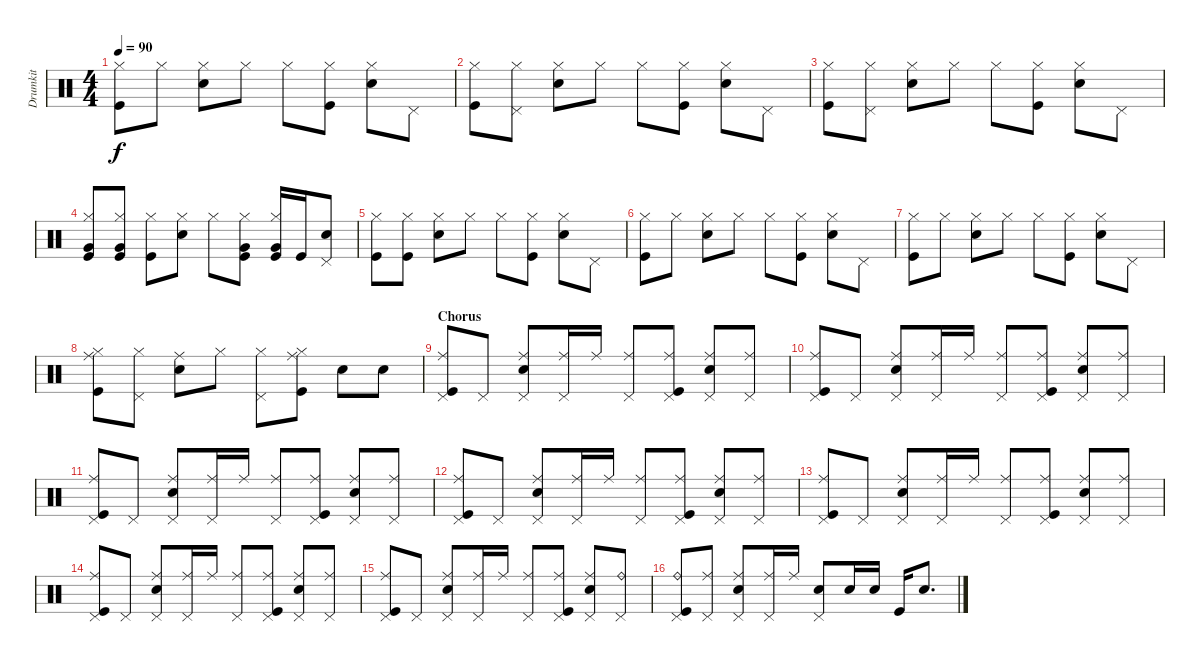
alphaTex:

\track ("Drumkit" "Drumkit") {instrument percussion}
\staff {score}
\articulation defaults
\ts (4 4)
\tempo 90
\clef neutral
\ks c
("Kick (hit)" "Hi-Hat (closed)").8{dy f} "Hi-Hat (closed)".8 ("Snare (hit) 2" "Hi-Hat (closed)").8 "Hi-Hat (closed)".8 "Hi-Hat (closed)".8 ("Kick (hit)" "Hi-Hat (closed)").8 ("Snare (hit) 2" "Hi-Hat (closed)").8 "Pedal Hi-Hat (hit)".8 |
("Kick (hit)" "Hi-Hat (closed)").8 ("Pedal Hi-Hat (hit)" "Hi-Hat (closed)").8 ("Snare (hit) 2" "Hi-Hat (closed)").8 "Hi-Hat (closed)".8 "Hi-Hat (closed)".8 ("Kick (hit)" "Hi-Hat (closed)").8 ("Snare (hit) 2" "Hi-Hat (closed)").8 "Pedal Hi-Hat (hit)".8 |
("Kick (hit)" "Hi-Hat (closed)").8 ("Pedal Hi-Hat (hit)" "Hi-Hat (closed)").8 ("Snare (hit) 2" "Hi-Hat (closed)").8 "Hi-Hat (closed)".8 "Hi-Hat (closed)".8 ("Kick (hit)" "Hi-Hat (closed)").8 ("Snare (hit) 2" "Hi-Hat (closed)").8 "Pedal Hi-Hat (hit)".8 |
("Kick (hit)" "Very Low Tom (hit)" "Hi-Hat (closed)").8 ("Kick (hit)" "Very Low Tom (hit)" "Hi-Hat (closed)").8 ("Kick (hit)" "Hi-Hat (closed)").8 ("Snare (hit) 2" "Hi-Hat (closed)").8 "Hi-Hat (closed)".8 ("Kick (hit)" "Very Low Tom (hit)" "Hi-Hat (closed)").8 ("Kick (hit)" "Very Low Tom (hit)" "Hi-Hat (closed)").16 "Kick (hit)".16 ("Snare (hit) 2" "Pedal Hi-Hat (hit)").8 |
("Kick (hit)" "Hi-Hat (closed)").8 ("Kick (hit)" "Hi-Hat (closed)").8 ("Snare (hit) 2" "Hi-Hat (closed)").8 "Hi-Hat (closed)".8 "Hi-Hat (closed)".8 ("Kick (hit)" "Hi-Hat (closed)").8 ("Snare (hit) 2" "Hi-Hat (closed)").8 "Pedal Hi-Hat (hit)".8 |
("Kick (hit)" "Hi-Hat (closed)").8 "Hi-Hat (closed)".8 ("Snare (hit) 2" "Hi-Hat (closed)").8 "Hi-Hat (closed)".8 "Hi-Hat (closed)".8 ("Kick (hit)" "Hi-Hat (closed)").8 ("Snare (hit) 2" "Hi-Hat (closed)").8 "Pedal Hi-Hat (hit)".8 |
("Kick (hit)" "Hi-Hat (closed)").8 "Hi-Hat (closed)".8 ("Snare (hit) 2" "Hi-Hat (closed)").8 "Hi-Hat (closed)".8 "Hi-Hat (closed)".8 ("Kick (hit)" "Hi-Hat (closed)").8 ("Snare (hit) 2" "Hi-Hat (closed)").8 "Pedal Hi-Hat (hit)".8 |
("Kick (hit)" "Ride (middle)" "Hi-Hat (closed)").8 ("Pedal Hi-Hat (hit)" "Hi-Hat (closed)").8 ("Snare (hit) 2" "Ride (middle)").8 "Hi-Hat (closed)".8 ("Pedal Hi-Hat (hit)" "Hi-Hat (closed)").8 ("Kick (hit)" "Ride (middle)" "Hi-Hat (closed)").8 "Snare (hit) 2".8 "Snare (hit) 2".8 |
\section ("" "Chorus")
("Kick (hit)" "Ride (middle)" "Pedal Hi-Hat (hit)").8 "Pedal Hi-Hat (hit)".8 ("Snare (hit) 2" "Ride (middle)" "Pedal Hi-Hat (hit)").8 ("Ride (middle)" "Pedal Hi-Hat (hit)").16 "Ride (middle)".16 ("Ride (middle)" "Pedal Hi-Hat (hit)").8 ("Kick (hit)" "Ride (middle)" "Pedal Hi-Hat (hit)").8 ("Snare (hit) 2" "Ride (middle)" "Pedal Hi-Hat (hit)").8 ("Ride (middle)" "Pedal Hi-Hat (hit)").8 |
("Kick (hit)" "Ride (middle)" "Pedal Hi-Hat (hit)").8 "Pedal Hi-Hat (hit)".8 ("Snare (hit) 2" "Ride (middle)" "Pedal Hi-Hat (hit)").8 ("Ride (middle)" "Pedal Hi-Hat (hit)").16 "Ride (middle)".16 ("Ride (middle)" "Pedal Hi-Hat (hit)").8 ("Kick (hit)" "Ride (middle)" "Pedal Hi-Hat (hit)").8 ("Snare (hit) 2" "Ride (middle)" "Pedal Hi-Hat (hit)").8 ("Ride (middle)" "Pedal Hi-Hat (hit)").8 |
("Kick (hit)" "Ride (middle)" "Pedal Hi-Hat (hit)").8 "Pedal Hi-Hat (hit)".8 ("Snare (hit) 2" "Ride (middle)" "Pedal Hi-Hat (hit)").8 ("Ride (middle)" "Pedal Hi-Hat (hit)").16 "Ride (middle)".16 ("Ride (middle)" "Pedal Hi-Hat (hit)").8 ("Kick (hit)" "Ride (middle)" "Pedal Hi-Hat (hit)").8 ("Snare (hit) 2" "Ride (middle)" "Pedal Hi-Hat (hit)").8 ("Ride (middle)" "Pedal Hi-Hat (hit)").8 |
("Kick (hit)" "Ride (middle)" "Pedal Hi-Hat (hit)").8 "Pedal Hi-Hat (hit)".8 ("Snare (hit) 2" "Ride (middle)" "Pedal Hi-Hat (hit)").8 ("Ride (middle)" "Pedal Hi-Hat (hit)").16 "Ride (middle)".16 ("Ride (middle)" "Pedal Hi-Hat (hit)").8 ("Kick (hit)" "Ride (middle)" "Pedal Hi-Hat (hit)").8 ("Snare (hit) 2" "Ride (middle)" "Pedal Hi-Hat (hit)").8 ("Ride (middle)" "Pedal Hi-Hat (hit)").8 |
("Kick (hit)" "Ride (middle)" "Pedal Hi-Hat (hit)").8 "Pedal Hi-Hat (hit)".8 ("Snare (hit) 2" "Ride (middle)" "Pedal Hi-Hat (hit)").8 ("Ride (middle)" "Pedal Hi-Hat (hit)").16 "Ride (middle)".16 ("Ride (middle)" "Pedal Hi-Hat (hit)").8 ("Kick (hit)" "Ride (middle)" "Pedal Hi-Hat (hit)").8 ("Snare (hit) 2" "Ride (middle)" "Pedal Hi-Hat (hit)").8 ("Ride (middle)" "Pedal Hi-Hat (hit)").8 |
("Kick (hit)" "Ride (middle)" "Pedal Hi-Hat (hit)").8 "Pedal Hi-Hat (hit)".8 ("Snare (hit) 2" "Ride (middle)" "Pedal Hi-Hat (hit)").8 ("Ride (middle)" "Pedal Hi-Hat (hit)").16 "Ride (middle)".16 ("Ride (middle)" "Pedal Hi-Hat (hit)").8 ("Kick (hit)" "Ride (middle)" "Pedal Hi-Hat (hit)").8 ("Snare (hit) 2" "Ride (middle)" "Pedal Hi-Hat (hit)").8 ("Ride (middle)" "Pedal Hi-Hat (hit)").8 |
("Kick (hit)" "Ride (middle)" "Pedal Hi-Hat (hit)").8 "Pedal Hi-Hat (hit)".8 ("Snare (hit) 2" "Ride (middle)" "Pedal Hi-Hat (hit)").8 ("Ride (middle)" "Pedal Hi-Hat (hit)").16 "Ride (middle)".16 ("Ride (middle)" "Pedal Hi-Hat (hit)").8 ("Kick (hit)" "Ride (middle)" "Pedal Hi-Hat (hit)").8 ("Snare (hit) 2" "Ride (middle)" "Pedal Hi-Hat (hit)").8 ("Ride (bell)" "Pedal Hi-Hat (hit)").8 |
("Kick (hit)" "Ride (bell)" "Pedal Hi-Hat (hit)").8 ("Ride (middle)" "Pedal Hi-Hat (hit)").8 ("Snare (hit) 2" "Ride (middle)" "Pedal Hi-Hat (hit)").8 ("Ride (middle)" "Pedal Hi-Hat (hit)").16 "Ride (middle)".16 ("Snare (hit) 2" "Pedal Hi-Hat (hit)").8 "Snare (hit) 2".16 "Snare (hit) 2".16 "Kick (hit)".16 "Snare (hit) 2".8{d}
